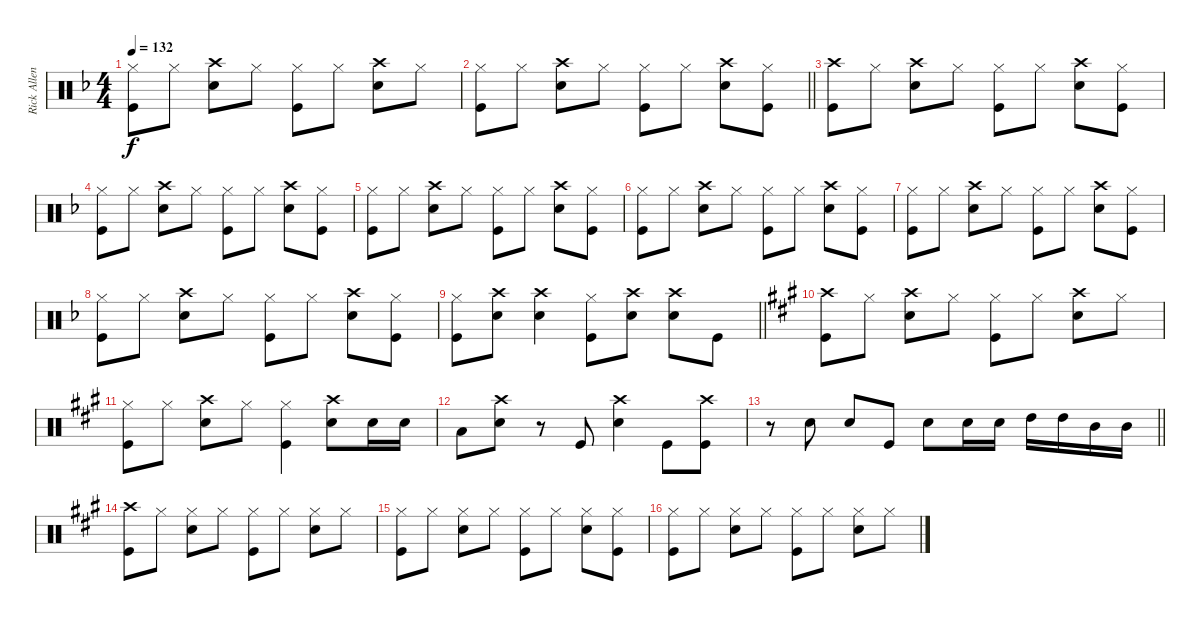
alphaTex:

\track ("Rick Allen" "Rick Allen") {instrument percussion}
\staff {score}
\articulation defaults
\ts (4 4)
\tempo 132
\clef neutral
\ks f
("Hi-Hat (closed)" "Kick (hit)").8{dy f} "Hi-Hat (closed)".8 ("Crash high (hit)" "Snare (hit) 2").8 "Hi-Hat (closed)".8 ("Hi-Hat (closed)" "Kick (hit)").8 "Hi-Hat (closed)".8 ("Crash high (hit)" "Snare (hit) 2").8 "Hi-Hat (closed)".8 |
\barLineRight lightlight
("Hi-Hat (closed)" "Kick (hit)").8 "Hi-Hat (closed)".8 ("Crash high (hit)" "Snare (hit) 2").8 "Hi-Hat (closed)".8 ("Hi-Hat (closed)" "Kick (hit)").8 "Hi-Hat (closed)".8 ("Crash high (hit)" "Snare (hit) 2").8 ("Hi-Hat (closed)" "Kick (hit)").8 |
("Crash high (hit)" "Kick (hit)").8 "Hi-Hat (closed)".8 ("Crash high (hit)" "Snare (hit) 2").8 "Hi-Hat (closed)".8 ("Hi-Hat (closed)" "Kick (hit)").8 "Hi-Hat (closed)".8 ("Crash high (hit)" "Snare (hit) 2").8 ("Hi-Hat (closed)" "Kick (hit)").8 |
("Hi-Hat (closed)" "Kick (hit)").8 "Hi-Hat (closed)".8 ("Crash high (hit)" "Snare (hit) 2").8 "Hi-Hat (closed)".8 ("Hi-Hat (closed)" "Kick (hit)").8 "Hi-Hat (closed)".8 ("Crash high (hit)" "Snare (hit) 2").8 ("Hi-Hat (closed)" "Kick (hit)").8 |
("Hi-Hat (closed)" "Kick (hit)").8 "Hi-Hat (closed)".8 ("Crash high (hit)" "Snare (hit) 2").8 "Hi-Hat (closed)".8 ("Hi-Hat (closed)" "Kick (hit)").8 "Hi-Hat (closed)".8 ("Crash high (hit)" "Snare (hit) 2").8 ("Hi-Hat (closed)" "Kick (hit)").8 |
("Hi-Hat (closed)" "Kick (hit)").8 "Hi-Hat (closed)".8 ("Crash high (hit)" "Snare (hit) 2").8 "Hi-Hat (closed)".8 ("Hi-Hat (closed)" "Kick (hit)").8 "Hi-Hat (closed)".8 ("Crash high (hit)" "Snare (hit) 2").8 ("Hi-Hat (closed)" "Kick (hit)").8 |
("Hi-Hat (closed)" "Kick (hit)").8 "Hi-Hat (closed)".8 ("Crash high (hit)" "Snare (hit) 2").8 "Hi-Hat (closed)".8 ("Hi-Hat (closed)" "Kick (hit)").8 "Hi-Hat (closed)".8 ("Crash high (hit)" "Snare (hit) 2").8 ("Hi-Hat (closed)" "Kick (hit)").8 |
("Hi-Hat (closed)" "Kick (hit)").8 "Hi-Hat (closed)".8 ("Crash high (hit)" "Snare (hit) 2").8 "Hi-Hat (closed)".8 ("Hi-Hat (closed)" "Kick (hit)").8 "Hi-Hat (closed)".8 ("Crash high (hit)" "Snare (hit) 2").8 ("Hi-Hat (closed)" "Kick (hit)").8 |
\barLineRight lightlight
("Hi-Hat (closed)" "Kick (hit)").8 ("Crash high (hit)" "Snare (hit) 2").8 ("Crash high (hit)" "Snare (hit) 2").4 ("Hi-Hat (closed)" "Kick (hit)").8 ("Crash high (hit)" "Snare (hit) 2").8 ("Crash high (hit)" "Snare (hit) 2").8 "Kick (hit)".8 |
\ks a
("Crash high (hit)" "Kick (hit)").8 "Hi-Hat (closed)".8 ("Crash high (hit)" "Snare (hit) 2").8 "Hi-Hat (closed)".8 ("Hi-Hat (closed)" "Kick (hit)").8 "Hi-Hat (closed)".8 ("Crash high (hit)" "Snare (hit) 2").8 "Hi-Hat (closed)".8 |
("Hi-Hat (closed)" "Kick (hit)").8 "Hi-Hat (closed)".8 ("Crash high (hit)" "Snare (hit) 2").8 "Hi-Hat (closed)".8 ("Hi-Hat (closed)" "Kick (hit)").4 ("Crash high (hit)" "Snare (hit) 2").8 "Snare (hit) 2".16 "Snare (hit) 2".16 |
"Low Tom (hit)".8 ("Crash high (hit)" "Snare (hit) 2").8 r.8 "Kick (hit)".8 ("Crash high (hit)" "Snare (hit) 2").4 "Kick (hit)".8 ("Crash high (hit)" "Kick (hit)").8 |
\barLineRight lightlight
r.8 "Snare (hit) 2".8 "Snare (hit) 2".8 "Kick (hit)".8 "Snare (hit) 2".8 "Snare (hit) 2".16 "Snare (hit) 2".16 "High Tom (hit)".16 "High Tom (hit)".16 "Mid Tom (hit)".16 "Mid Tom (hit)".16 |
("Crash high (hit)" "Kick (hit)").8 "Hi-Hat (closed)".8 ("Hi-Hat (closed)" "Snare (hit) 2").8 "Hi-Hat (closed)".8 ("Hi-Hat (closed)" "Kick (hit)").8 "Hi-Hat (closed)".8 ("Hi-Hat (closed)" "Snare (hit) 2").8 "Hi-Hat (closed)".8 |
("Hi-Hat (closed)" "Kick (hit)").8 "Hi-Hat (closed)".8 ("Hi-Hat (closed)" "Snare (hit) 2").8 "Hi-Hat (closed)".8 ("Hi-Hat (closed)" "Kick (hit)").8 "Hi-Hat (closed)".8 ("Hi-Hat (closed)" "Snare (hit) 2").8 ("Hi-Hat (closed)" "Kick (hit)").8 |
("Hi-Hat (closed)" "Kick (hit)").8 "Hi-Hat (closed)".8 ("Hi-Hat (closed)" "Snare (hit) 2").8 "Hi-Hat (closed)".8 ("Hi-Hat (closed)" "Kick (hit)").8 "Hi-Hat (closed)".8 ("Hi-Hat (closed)" "Snare (hit) 2").8 "Hi-Hat (closed)".8
